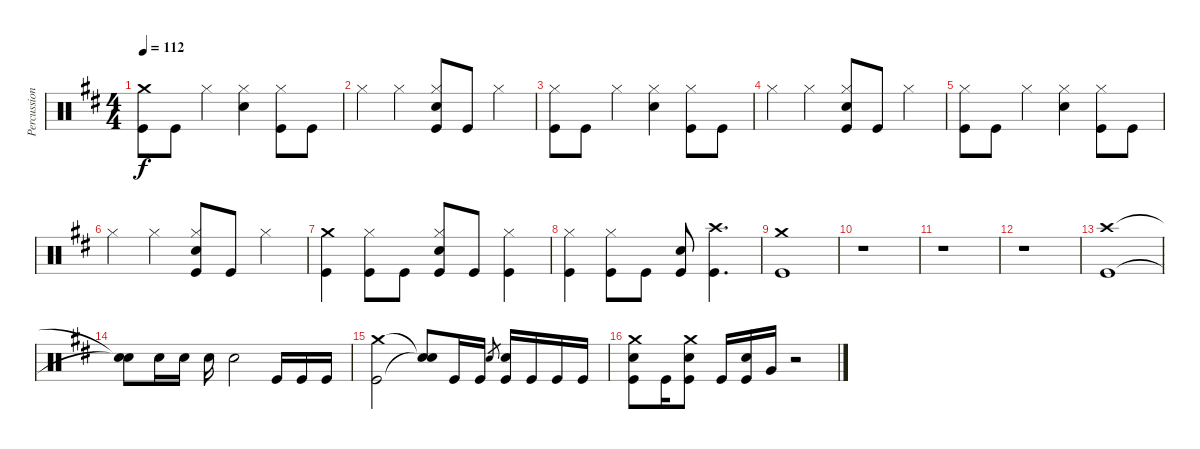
\track ("Percussion" "Percussion") {instrument percussion}
\staff {score}
\articulation defaults
\ts (4 4)
\tempo 112
\clef neutral
\ks d
("Crash medium (hit)" "Kick (hit)").8{dy f} "Kick (hit)".8 "Hi-Hat (closed)".4 ("Hi-Hat (closed)" "Electric Snare (hit)").4 ("Hi-Hat (closed)" "Kick (hit)").8 "Kick (hit)".8 |
"Hi-Hat (closed)".4 "Hi-Hat (closed)".4 ("Hi-Hat (closed)" "Electric Snare (hit)" "Kick (hit)").8 "Kick (hit)".8 "Hi-Hat (closed)".4 |
("Hi-Hat (closed)" "Kick (hit)").8 "Kick (hit)".8 "Hi-Hat (closed)".4 ("Hi-Hat (closed)" "Electric Snare (hit)").4 ("Hi-Hat (closed)" "Kick (hit)").8 "Kick (hit)".8 |
"Hi-Hat (closed)".4 "Hi-Hat (closed)".4 ("Hi-Hat (closed)" "Electric Snare (hit)" "Kick (hit)").8 "Kick (hit)".8 "Hi-Hat (closed)".4 |
("Hi-Hat (closed)" "Kick (hit)").8 "Kick (hit)".8 "Hi-Hat (closed)".4 ("Hi-Hat (closed)" "Electric Snare (hit)").4 ("Hi-Hat (closed)" "Kick (hit)").8 "Kick (hit)".8 |
"Hi-Hat (closed)".4 "Hi-Hat (closed)".4 ("Hi-Hat (closed)" "Electric Snare (hit)" "Kick (hit)").8 "Kick (hit)".8 "Hi-Hat (closed)".4 |
("Crash medium (hit)" "Kick (hit)").4 ("Hi-Hat (closed)" "Kick (hit)").8 "Kick (hit)".8 ("Hi-Hat (closed)" "Electric Snare (hit)" "Kick (hit)").8 "Kick (hit)".8 ("Hi-Hat (closed)" "Kick (hit)").4 |
("Hi-Hat (closed)" "Kick (hit)").4 ("Hi-Hat (closed)" "Kick (hit)").8 "Kick (hit)".8 ("Electric Snare (hit)" "Kick (hit)").8 ("Crash high (hit)" "Kick (hit)").4{d} |
("Crash medium (hit)" "Kick (hit)").1 |
r.1 |
r.1 |
r.1 |
("Crash high (hit)" "Kick (hit)").1 |
("Snare (hit)"{t} "Snare (hit)"{t}).8 "Electric Snare (hit)".16 "Electric Snare (hit)".16 "Electric Snare (hit)".16 "Electric Snare (hit)".2 "Kick (hit)".16 "Kick (hit)".16 "Kick (hit)".16 |
("Crash medium (hit)" "Kick (hit)").2 ("Snare (hit)"{t} "Snare (hit)"{t}).8 "Kick (hit)".16 "Kick (hit)".16 "Electric Snare (hit)".8{gr} ("Electric Snare (hit)" "Kick (hit)").16 "Kick (hit)".16 "Kick (hit)".16 "Kick (hit)".16 |
("Crash medium (hit)" "Electric Snare (hit)" "Kick (hit)").8 "Kick (hit)".16 ("Crash medium (hit)" "Electric Snare (hit)" "Kick (hit)").8 "Kick (hit)".16 ("Electric Snare (hit)" "Kick (hit)").16 "Very Low Tom (hit)".16 r.2
